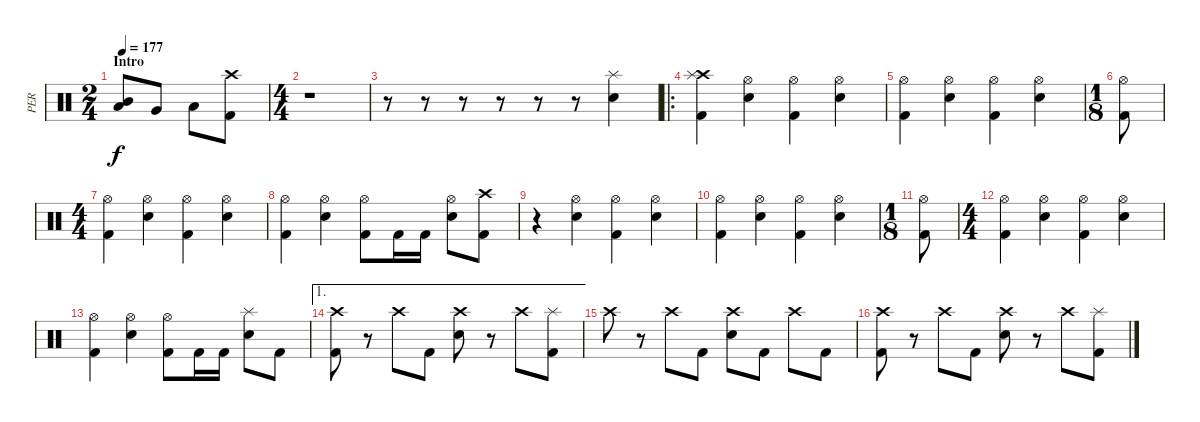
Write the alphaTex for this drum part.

\track ("PER" "PER") {instrument percussion}
\staff {score}
\articulation defaults
\ts (2 4)
\section ("" "Intro")
\tempo 177
\clef neutral
\ks c
("Mid Tom (hit)" "Low Tom (hit)").8{dy f} "Very Low Tom (hit)".8 "Low Floor Tom (hit)".8 ("Crash high (hit)" "Kick (hit) 2").8 |
\ts (4 4)
r.1 |
r.8 r.8 r.8 r.8 r.8 r.8 ("Splash (hit)" "Electric Snare (hit)").4 |
\ro
("Crash high (hit)" "Splash (hit)" "Kick (hit) 2").4 ("Hi-Hat (open)" "Electric Snare (hit)").4 ("Hi-Hat (open)" "Kick (hit) 2").4 ("Hi-Hat (open)" "Electric Snare (hit)").4 |
("Hi-Hat (open)" "Kick (hit) 2").4 ("Hi-Hat (open)" "Electric Snare (hit)").4 ("Hi-Hat (open)" "Kick (hit) 2").4 ("Hi-Hat (open)" "Electric Snare (hit)").4 |
\ts (1 8)
("Hi-Hat (open)" "Kick (hit) 2").8 |
\ts (4 4)
("Hi-Hat (open)" "Kick (hit) 2").4 ("Hi-Hat (open)" "Electric Snare (hit)").4 ("Hi-Hat (open)" "Kick (hit) 2").4 ("Hi-Hat (open)" "Electric Snare (hit)").4 |
("Hi-Hat (open)" "Kick (hit) 2").4 ("Hi-Hat (open)" "Electric Snare (hit)").4 ("Hi-Hat (open)" "Kick (hit) 2").8 "Kick (hit) 2".16 "Kick (hit) 2".16 ("Hi-Hat (open)" "Electric Snare (hit)").8 ("Crash high (hit)" "Kick (hit) 2").8 |
r.4 ("Hi-Hat (open)" "Electric Snare (hit)").4 ("Hi-Hat (open)" "Kick (hit) 2").4 ("Hi-Hat (open)" "Electric Snare (hit)").4 |
("Hi-Hat (open)" "Kick (hit) 2").4 ("Hi-Hat (open)" "Electric Snare (hit)").4 ("Hi-Hat (open)" "Kick (hit) 2").4 ("Hi-Hat (open)" "Electric Snare (hit)").4 |
\ts (1 8)
("Hi-Hat (open)" "Kick (hit) 2").8 |
\ts (4 4)
("Hi-Hat (open)" "Kick (hit) 2").4 ("Hi-Hat (open)" "Electric Snare (hit)").4 ("Hi-Hat (open)" "Kick (hit) 2").4 ("Hi-Hat (open)" "Electric Snare (hit)").4 |
("Hi-Hat (open)" "Kick (hit) 2").4 ("Hi-Hat (open)" "Electric Snare (hit)").4 ("Hi-Hat (open)" "Kick (hit) 2").8 "Kick (hit) 2".16 "Kick (hit) 2".16 ("Splash (hit)" "Electric Snare (hit)").8 "Kick (hit) 2".8 |
\ae 1
("Crash high (hit)" "Kick (hit) 2").8 r.8 "Crash high (hit)".8 "Kick (hit) 2".8 ("Crash high (hit)" "Electric Snare (hit)").8 r.8 "Crash high (hit)".8 ("Splash (hit)" "Kick (hit) 2").8 |
"Crash high (hit)".8 r.8 "Crash high (hit)".8 "Kick (hit) 2".8 ("Crash high (hit)" "Electric Snare (hit)").8 "Kick (hit) 2".8 "Crash high (hit)".8 "Kick (hit) 2".8 |
("Crash high (hit)" "Kick (hit) 2").8 r.8 "Crash high (hit)".8 "Kick (hit) 2".8 ("Crash high (hit)" "Electric Snare (hit)").8 r.8 "Crash high (hit)".8 ("Splash (hit)" "Kick (hit) 2").8
